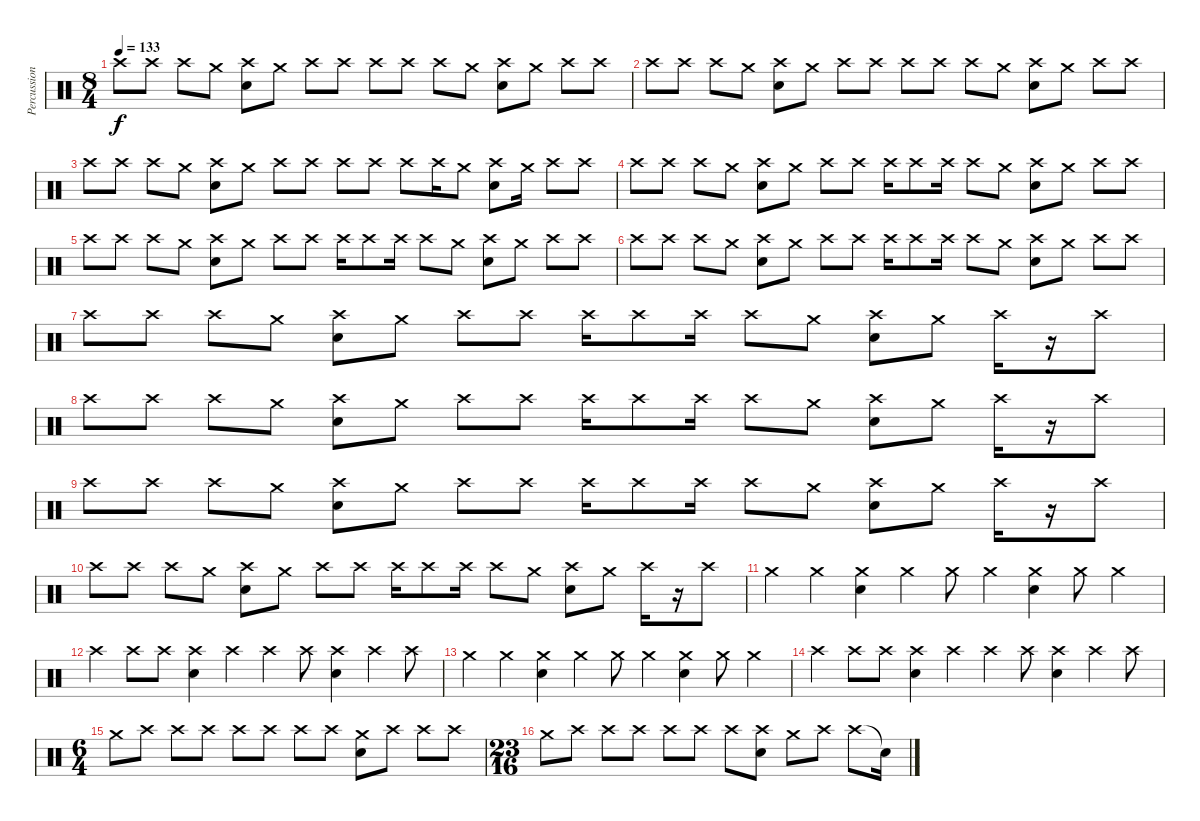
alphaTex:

\track ("Percussion" "Percussion") {instrument percussion}
\staff {score}
\articulation defaults
\ts (8 4)
\tempo 133
\clef neutral
\ks c "Crash high (hit)".8{dy f} "Crash high (hit)".8 "Crash high (hit)".8 "Crash medium (hit)".8
("Crash high (hit)" "Electric Snare (hit)").8 "Crash medium (hit)".8 "Crash high (hit)".8 "Crash high (hit)".8 "Crash high (hit)".8 "Crash high (hit)".8 "Crash high (hit)".8 "Crash medium (hit)".8 ("Crash high (hit)" "Electric Snare (hit)").8 "Crash medium (hit)".8 "Crash high (hit)".8 "Crash high (hit)".8 |
"Crash high (hit)".8 "Crash high (hit)".8 "Crash high (hit)".8 "Crash medium (hit)".8 ("Crash high (hit)" "Electric Snare (hit)").8 "Crash medium (hit)".8 "Crash high (hit)".8 "Crash high (hit)".8 "Crash high (hit)".8 "Crash high (hit)".8 "Crash high (hit)".8 "Crash medium (hit)".8 ("Crash high (hit)" "Electric Snare (hit)").8 "Crash medium (hit)".8 "Crash high (hit)".8 "Crash high (hit)".8 |
"Crash high (hit)".8 "Crash high (hit)".8 "Crash high (hit)".8 "Crash medium (hit)".8 ("Crash high (hit)" "Electric Snare (hit)").8 "Crash medium (hit)".8 "Crash high (hit)".8 "Crash high (hit)".8 "Crash high (hit)".8 "Crash high (hit)".8 "Crash high (hit)".8 "Crash high (hit)".16 "Crash medium (hit)".8 ("Crash high (hit)" "Electric Snare (hit)").8 "Crash medium (hit)".16 "Crash high (hit)".8 "Crash high (hit)".8 |
"Crash high (hit)".8 "Crash high (hit)".8 "Crash high (hit)".8 "Crash medium (hit)".8 ("Crash high (hit)" "Electric Snare (hit)").8 "Crash medium (hit)".8 "Crash high (hit)".8 "Crash high (hit)".8 "Crash high (hit)".16 "Crash high (hit)".8 "Crash high (hit)".16 "Crash high (hit)".8 "Crash medium (hit)".8 ("Crash high (hit)" "Electric Snare (hit)").8 "Crash medium (hit)".8 "Crash high (hit)".8 "Crash high (hit)".8 |
"Crash high (hit)".8 "Crash high (hit)".8 "Crash high (hit)".8 "Crash medium (hit)".8 ("Crash high (hit)" "Electric Snare (hit)").8 "Crash medium (hit)".8 "Crash high (hit)".8 "Crash high (hit)".8 "Crash high (hit)".16 "Crash high (hit)".8 "Crash high (hit)".16 "Crash high (hit)".8 "Crash medium (hit)".8 ("Crash high (hit)" "Electric Snare (hit)").8 "Crash medium (hit)".8 "Crash high (hit)".8 "Crash high (hit)".8 |
"Crash high (hit)".8 "Crash high (hit)".8 "Crash high (hit)".8 "Crash medium (hit)".8 ("Crash high (hit)" "Electric Snare (hit)").8 "Crash medium (hit)".8 "Crash high (hit)".8 "Crash high (hit)".8 "Crash high (hit)".16 "Crash high (hit)".8 "Crash high (hit)".16 "Crash high (hit)".8 "Crash medium (hit)".8 ("Crash high (hit)" "Electric Snare (hit)").8 "Crash medium (hit)".8 "Crash high (hit)".8 "Crash high (hit)".8 |
"Crash high (hit)".8 "Crash high (hit)".8 "Crash high (hit)".8 "Crash medium (hit)".8 ("Crash high (hit)" "Electric Snare (hit)").8 "Crash medium (hit)".8 "Crash high (hit)".8 "Crash high (hit)".8 "Crash high (hit)".16 "Crash high (hit)".8 "Crash high (hit)".16 "Crash high (hit)".8 "Crash medium (hit)".8 ("Crash high (hit)" "Electric Snare (hit)").8 "Crash medium (hit)".8 "Crash high (hit)".16 r.16 "Crash high (hit)".8 |
"Crash high (hit)".8 "Crash high (hit)".8 "Crash high (hit)".8 "Crash medium (hit)".8 ("Crash high (hit)" "Electric Snare (hit)").8 "Crash medium (hit)".8 "Crash high (hit)".8 "Crash high (hit)".8 "Crash high (hit)".16 "Crash high (hit)".8 "Crash high (hit)".16 "Crash high (hit)".8 "Crash medium (hit)".8 ("Crash high (hit)" "Electric Snare (hit)").8 "Crash medium (hit)".8 "Crash high (hit)".16 r.16 "Crash high (hit)".8 |
"Crash high (hit)".8 "Crash high (hit)".8 "Crash high (hit)".8 "Crash medium (hit)".8 ("Crash high (hit)" "Electric Snare (hit)").8 "Crash medium (hit)".8 "Crash high (hit)".8 "Crash high (hit)".8 "Crash high (hit)".16 "Crash high (hit)".8 "Crash high (hit)".16 "Crash high (hit)".8 "Crash medium (hit)".8 ("Crash high (hit)" "Electric Snare (hit)").8 "Crash medium (hit)".8 "Crash high (hit)".16 r.16 "Crash high (hit)".8 |
"Crash high (hit)".8 "Crash high (hit)".8 "Crash high (hit)".8 "Crash medium (hit)".8 ("Crash high (hit)" "Electric Snare (hit)").8 "Crash medium (hit)".8 "Crash high (hit)".8 "Crash high (hit)".8 "Crash high (hit)".16 "Crash high (hit)".8 "Crash high (hit)".16 "Crash high (hit)".8 "Crash medium (hit)".8 ("Crash high (hit)" "Electric Snare (hit)").8 "Crash medium (hit)".8 "Crash high (hit)".16 r.16 "Crash high (hit)".8 |
"Crash medium (hit)".4 "Crash medium (hit)".4 ("Crash medium (hit)" "Electric Snare (hit)").4 "Crash medium (hit)".4 "Crash medium (hit)".8 "Crash medium (hit)".4 ("Crash medium (hit)" "Electric Snare (hit)").4 "Crash medium (hit)".8 "Crash medium (hit)".4 |
"Crash high (hit)".4 "Crash high (hit)".8 "Crash high (hit)".8 ("Crash high (hit)" "Snare (hit) 2").4 "Crash high (hit)".4 "Crash high (hit)".4 "Crash high (hit)".8 ("Crash high (hit)" "Snare (hit) 2").4 "Crash high (hit)".4 "Crash high (hit)".8 |
"Crash medium (hit)".4 "Crash medium (hit)".4 ("Crash medium (hit)" "Electric Snare (hit)").4 "Crash medium (hit)".4 "Crash medium (hit)".8 "Crash medium (hit)".4 ("Crash medium (hit)" "Electric Snare (hit)").4 "Crash medium (hit)".8 "Crash medium (hit)".4 |
"Crash high (hit)".4 "Crash high (hit)".8 "Crash high (hit)".8 ("Crash high (hit)" "Snare (hit) 2").4 "Crash high (hit)".4 "Crash high (hit)".4 "Crash high (hit)".8 ("Crash high (hit)" "Snare (hit) 2").4 "Crash high (hit)".4 "Crash high (hit)".8 |
\ts (6 4)
"Crash medium (hit)".8 "Crash high (hit)".8 "Crash high (hit)".8 "Crash high (hit)".8 "Crash high (hit)".8 "Crash high (hit)".8 "Crash high (hit)".8 "Crash high (hit)".8 ("Crash medium (hit)" "Electric Snare (hit)").8 "Crash high (hit)".8 "Crash high (hit)".8 "Crash high (hit)".8 |
\ts (23 16)
"Crash medium (hit)".8 "Crash high (hit)".8 "Crash high (hit)".8 "Crash high (hit)".8 "Crash high (hit)".8 "Crash high (hit)".8 "Crash high (hit)".8 ("Crash high (hit)" "Electric Snare (hit)").8 "Crash medium (hit)".8 "Crash high (hit)".8 "Crash high (hit)".8 "Snare (hit)"{t}.16
